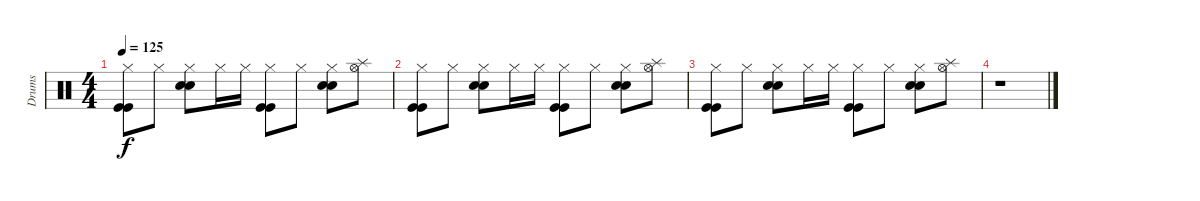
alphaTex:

\track ("Drums" "Drums") {instrument percussion}
\staff {score}
\articulation defaults
\ts (4 4)
\tempo 125
\clef neutral
\ks c
("Hi-Hat (closed)" "Kick (hit)" "Kick (hit)").8{dy f} "Hi-Hat (closed)".8 ("Hi-Hat (closed)" "Electric Snare (hit)" "Electric Snare (hit)").8 "Hi-Hat (closed)".16 "Hi-Hat (closed)".16 ("Hi-Hat (closed)" "Kick (hit)" "Kick (hit)").8 "Hi-Hat (closed)".8 ("Hi-Hat (closed)" "Electric Snare (hit)" "Electric Snare (hit)").8 ("Hi-Hat (open)" "Splash (hit)").8 |
("Hi-Hat (closed)" "Kick (hit)" "Kick (hit)").8{volume 0} "Hi-Hat (closed)".8 ("Hi-Hat (closed)" "Electric Snare (hit)" "Electric Snare (hit)").8 "Hi-Hat (closed)".16 "Hi-Hat (closed)".16 ("Hi-Hat (closed)" "Kick (hit)" "Kick (hit)").8 "Hi-Hat (closed)".8 ("Hi-Hat (closed)" "Electric Snare (hit)" "Electric Snare (hit)").8 ("Hi-Hat (open)" "Splash (hit)").8 |
("Hi-Hat (closed)" "Kick (hit)" "Kick (hit)").8 "Hi-Hat (closed)".8 ("Hi-Hat (closed)" "Electric Snare (hit)" "Electric Snare (hit)").8 "Hi-Hat (closed)".16 "Hi-Hat (closed)".16 ("Hi-Hat (closed)" "Kick (hit)" "Kick (hit)").8 "Hi-Hat (closed)".8 ("Hi-Hat (closed)" "Electric Snare (hit)" "Electric Snare (hit)").8 ("Hi-Hat (open)" "Splash (hit)").8 |
r.1
